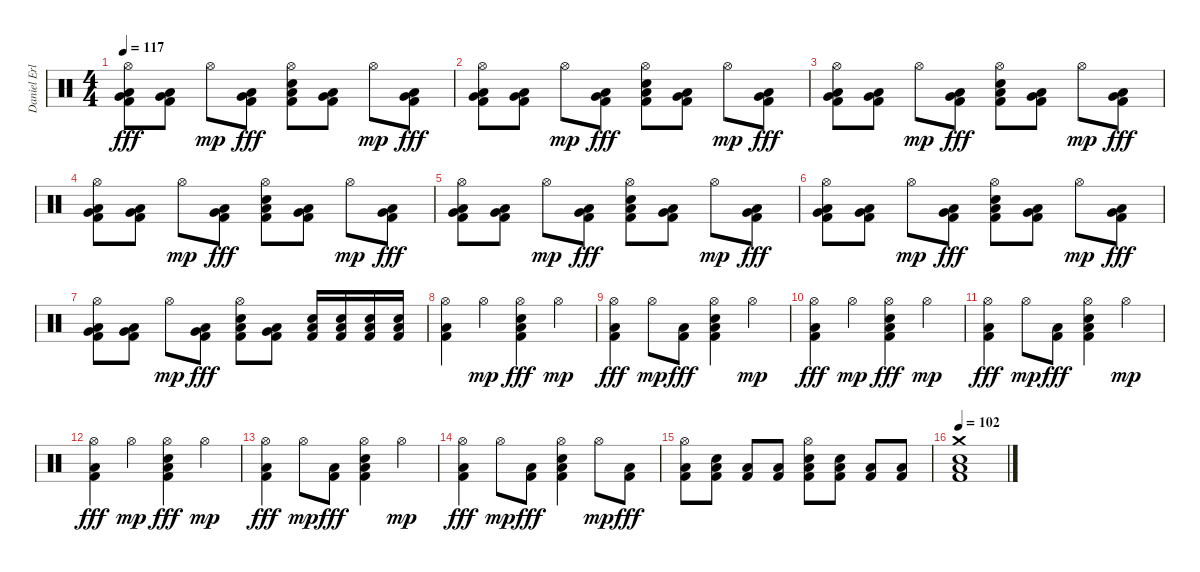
\track ("Daniel Erlandsson" "Daniel Erl") {instrument percussion}
\staff {score}
\articulation defaults
\ts (4 4)
\tempo 117
\clef neutral
\ks c
("Hi-Hat (open)" "Very Low Tom (hit)" "Kick (hit) 2" "Low Floor Tom (hit)").8{dy fff} ("Very Low Tom (hit)" "Kick (hit) 2" "Low Floor Tom (hit)").8 "Hi-Hat (open)".8{dy mp} ("Very Low Tom (hit)" "Kick (hit) 2" "Low Floor Tom (hit)").8{dy fff} ("Hi-Hat (open)" "Snare (hit) 2" "Kick (hit) 2" "Low Tom (hit)").8 ("Very Low Tom (hit)" "Kick (hit) 2" "Low Floor Tom (hit)").8 "Hi-Hat (open)".8{dy mp} ("Very Low Tom (hit)" "Kick (hit) 2" "Low Floor Tom (hit)").8{dy fff} |
("Hi-Hat (open)" "Very Low Tom (hit)" "Kick (hit) 2" "Low Floor Tom (hit)").8 ("Very Low Tom (hit)" "Kick (hit) 2" "Low Floor Tom (hit)").8 "Hi-Hat (open)".8{dy mp} ("Very Low Tom (hit)" "Kick (hit) 2" "Low Floor Tom (hit)").8{dy fff} ("Hi-Hat (open)" "Snare (hit) 2" "Kick (hit) 2" "Low Tom (hit)").8 ("Very Low Tom (hit)" "Kick (hit) 2" "Low Floor Tom (hit)").8 "Hi-Hat (open)".8{dy mp} ("Very Low Tom (hit)" "Kick (hit) 2" "Low Floor Tom (hit)").8{dy fff} |
("Hi-Hat (open)" "Very Low Tom (hit)" "Kick (hit) 2" "Low Floor Tom (hit)").8 ("Very Low Tom (hit)" "Kick (hit) 2" "Low Floor Tom (hit)").8 "Hi-Hat (open)".8{dy mp} ("Very Low Tom (hit)" "Kick (hit) 2" "Low Floor Tom (hit)").8{dy fff} ("Hi-Hat (open)" "Snare (hit) 2" "Kick (hit) 2" "Low Tom (hit)").8 ("Very Low Tom (hit)" "Kick (hit) 2" "Low Floor Tom (hit)").8 "Hi-Hat (open)".8{dy mp} ("Very Low Tom (hit)" "Kick (hit) 2" "Low Floor Tom (hit)").8{dy fff} |
("Hi-Hat (open)" "Very Low Tom (hit)" "Kick (hit) 2" "Low Floor Tom (hit)").8 ("Very Low Tom (hit)" "Kick (hit) 2" "Low Floor Tom (hit)").8 "Hi-Hat (open)".8{dy mp} ("Very Low Tom (hit)" "Kick (hit) 2" "Low Floor Tom (hit)").8{dy fff} ("Hi-Hat (open)" "Snare (hit) 2" "Kick (hit) 2" "Low Tom (hit)").8 ("Very Low Tom (hit)" "Kick (hit) 2" "Low Floor Tom (hit)").8 "Hi-Hat (open)".8{dy mp} ("Very Low Tom (hit)" "Kick (hit) 2" "Low Floor Tom (hit)").8{dy fff} |
("Hi-Hat (open)" "Very Low Tom (hit)" "Kick (hit) 2" "Low Floor Tom (hit)").8 ("Very Low Tom (hit)" "Kick (hit) 2" "Low Floor Tom (hit)").8 "Hi-Hat (open)".8{dy mp} ("Very Low Tom (hit)" "Kick (hit) 2" "Low Floor Tom (hit)").8{dy fff} ("Hi-Hat (open)" "Snare (hit) 2" "Kick (hit) 2" "Low Tom (hit)").8 ("Very Low Tom (hit)" "Kick (hit) 2" "Low Floor Tom (hit)").8 "Hi-Hat (open)".8{dy mp} ("Very Low Tom (hit)" "Kick (hit) 2" "Low Floor Tom (hit)").8{dy fff} |
("Hi-Hat (open)" "Very Low Tom (hit)" "Kick (hit) 2" "Low Floor Tom (hit)").8 ("Very Low Tom (hit)" "Kick (hit) 2" "Low Floor Tom (hit)").8 "Hi-Hat (open)".8{dy mp} ("Very Low Tom (hit)" "Kick (hit) 2" "Low Floor Tom (hit)").8{dy fff} ("Hi-Hat (open)" "Snare (hit) 2" "Kick (hit) 2" "Low Tom (hit)").8 ("Very Low Tom (hit)" "Kick (hit) 2" "Low Floor Tom (hit)").8 "Hi-Hat (open)".8{dy mp} ("Very Low Tom (hit)" "Kick (hit) 2" "Low Floor Tom (hit)").8{dy fff} |
("Hi-Hat (open)" "Very Low Tom (hit)" "Kick (hit) 2" "Low Floor Tom (hit)").8 ("Very Low Tom (hit)" "Kick (hit) 2" "Low Floor Tom (hit)").8 "Hi-Hat (open)".8{dy mp} ("Very Low Tom (hit)" "Kick (hit) 2" "Low Floor Tom (hit)").8{dy fff} ("Hi-Hat (open)" "Snare (hit) 2" "Kick (hit) 2" "Low Tom (hit)").8 ("Very Low Tom (hit)" "Kick (hit) 2" "Low Floor Tom (hit)").8 ("Snare (hit) 2" "Kick (hit) 2" "Low Floor Tom (hit)").16 ("Snare (hit) 2" "Kick (hit) 2" "Low Floor Tom (hit)").16 ("Snare (hit) 2" "Kick (hit) 2" "Low Floor Tom (hit)").16 ("Snare (hit) 2" "Kick (hit) 2" "Low Floor Tom (hit)").16 |
("Hi-Hat (open)" "Kick (hit) 2" "Low Floor Tom (hit)").4 "Hi-Hat (open)".4{dy mp} ("Hi-Hat (open)" "Snare (hit) 2" "Kick (hit) 2" "Low Floor Tom (hit)").4{dy fff} "Hi-Hat (open)".4{dy mp} |
("Hi-Hat (open)" "Kick (hit) 2" "Low Floor Tom (hit)").4{dy fff} "Hi-Hat (open)".8{dy mp} ("Kick (hit) 2" "Low Floor Tom (hit)").8{dy fff} ("Hi-Hat (open)" "Snare (hit) 2" "Kick (hit) 2" "Low Floor Tom (hit)").4 "Hi-Hat (open)".4{dy mp} |
("Hi-Hat (open)" "Kick (hit) 2" "Low Floor Tom (hit)").4{dy fff} "Hi-Hat (open)".4{dy mp} ("Hi-Hat (open)" "Snare (hit) 2" "Kick (hit) 2" "Low Floor Tom (hit)").4{dy fff} "Hi-Hat (open)".4{dy mp} |
("Hi-Hat (open)" "Kick (hit) 2" "Low Floor Tom (hit)").4{dy fff} "Hi-Hat (open)".8{dy mp} ("Kick (hit) 2" "Low Floor Tom (hit)").8{dy fff} ("Hi-Hat (open)" "Snare (hit) 2" "Kick (hit) 2" "Low Floor Tom (hit)").4 "Hi-Hat (open)".4{dy mp} |
("Hi-Hat (open)" "Kick (hit) 2" "Low Floor Tom (hit)").4{dy fff} "Hi-Hat (open)".4{dy mp} ("Hi-Hat (open)" "Snare (hit) 2" "Kick (hit) 2" "Low Floor Tom (hit)").4{dy fff} "Hi-Hat (open)".4{dy mp} |
("Hi-Hat (open)" "Kick (hit) 2" "Low Floor Tom (hit)").4{dy fff} "Hi-Hat (open)".8{dy mp} ("Kick (hit) 2" "Low Floor Tom (hit)").8{dy fff} ("Hi-Hat (open)" "Snare (hit) 2" "Kick (hit) 2" "Low Floor Tom (hit)").4 "Hi-Hat (open)".4{dy mp} |
("Hi-Hat (open)" "Kick (hit) 2" "Low Floor Tom (hit)").4{dy fff} "Hi-Hat (open)".8{dy mp} ("Kick (hit) 2" "Low Floor Tom (hit)").8{dy fff} ("Hi-Hat (open)" "Snare (hit) 2" "Kick (hit) 2" "Low Floor Tom (hit)").4 "Hi-Hat (open)".8{dy mp} ("Kick (hit) 2" "Low Floor Tom (hit)").8{dy fff} |
("Hi-Hat (open)" "Kick (hit) 2" "Low Floor Tom (hit)").8 ("Snare (hit) 2" "Kick (hit) 2" "Low Floor Tom (hit)").8 ("Kick (hit) 2" "Low Floor Tom (hit)").8 ("Kick (hit) 2" "Low Floor Tom (hit)").8 ("Hi-Hat (open)" "Snare (hit) 2" "Kick (hit) 2" "Low Floor Tom (hit)").8 ("Snare (hit) 2" "Kick (hit) 2" "Low Floor Tom (hit)").8 ("Kick (hit) 2" "Low Floor Tom (hit)").8 ("Kick (hit) 2" "Low Floor Tom (hit)").8 |
\tempo 102
("Crash medium (hit)" "Snare (hit) 2" "Kick (hit) 2" "Low Floor Tom (hit)").1
